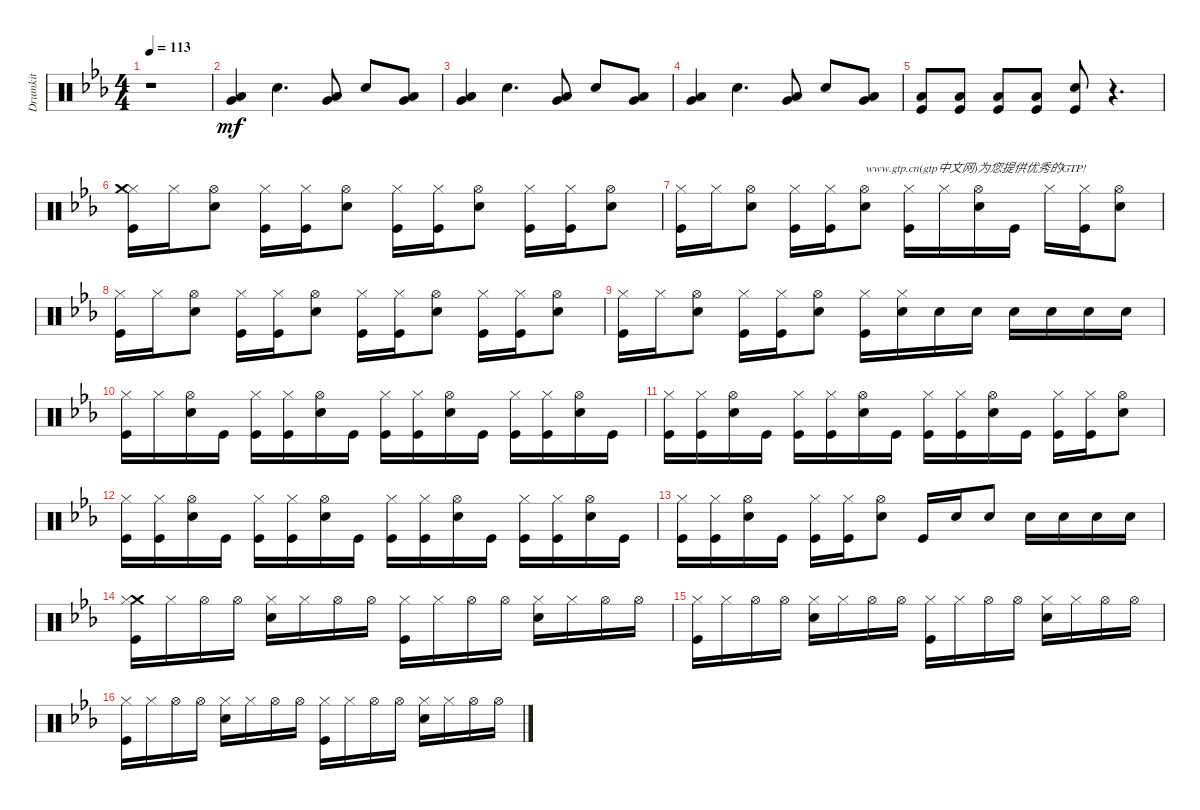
\track ("Drumkit" "Drumkit") {instrument percussion}
\staff {score}
\articulation defaults
\ts (4 4)
\tempo 113
\clef neutral
\ks eb
r.1{dy mf} |
("Low Floor Tom (hit)" "Very Low Tom (hit)").4 "Snare (hit) 2".4{d} ("Low Floor Tom (hit)" "Very Low Tom (hit)").8 "Snare (hit) 2".8 ("Low Floor Tom (hit)" "Very Low Tom (hit)").8 |
("Very Low Tom (hit)" "Low Floor Tom (hit)").4 "Snare (hit) 2".4{d} ("Very Low Tom (hit)" "Low Floor Tom (hit)").8 "Snare (hit) 2".8 ("Very Low Tom (hit)" "Low Floor Tom (hit)").8 |
("Very Low Tom (hit)" "Low Floor Tom (hit)").4 "Snare (hit) 2".4{d} ("Very Low Tom (hit)" "Low Floor Tom (hit)").8 "Snare (hit) 2".8 ("Very Low Tom (hit)" "Low Floor Tom (hit)").8 |
("Kick (hit)" "Low Floor Tom (hit)").8 ("Kick (hit)" "Low Floor Tom (hit)").8 ("Kick (hit)" "Low Floor Tom (hit)").8 ("Kick (hit)" "Low Floor Tom (hit)").8 ("Snare (hit) 2" "Kick (hit)").8 r.4{d} |
("Hi-Hat (closed)" "Kick (hit)" "Crash medium (hit)").16 "Hi-Hat (closed)".16 ("Hi-Hat (open)" "Snare (hit) 2").8 ("Hi-Hat (closed)" "Kick (hit)").16 ("Hi-Hat (closed)" "Kick (hit)").16 ("Hi-Hat (open)" "Snare (hit) 2").8 ("Hi-Hat (closed)" "Kick (hit)").16 ("Hi-Hat (closed)" "Kick (hit)").16 ("Hi-Hat (open)" "Snare (hit) 2").8 ("Hi-Hat (closed)" "Kick (hit)").16 ("Hi-Hat (closed)" "Kick (hit)").16 ("Hi-Hat (open)" "Snare (hit) 2").8 |
("Hi-Hat (closed)" "Kick (hit)").16 "Hi-Hat (closed)".16 ("Hi-Hat (open)" "Snare (hit) 2").8 ("Hi-Hat (closed)" "Kick (hit)").16 ("Hi-Hat (closed)" "Kick (hit)").16 ("Hi-Hat (open)" "Snare (hit) 2").8{txt "www.gtp.cn(gtp中文网)为您提供优秀的GTP!"} ("Hi-Hat (closed)" "Kick (hit)").16 "Hi-Hat (closed)".16 ("Hi-Hat (open)" "Snare (hit) 2").16 "Kick (hit)".16 "Hi-Hat (closed)".16 ("Hi-Hat (closed)" "Kick (hit)").16 ("Snare (hit) 2" "Hi-Hat (open)").8 |
("Hi-Hat (closed)" "Kick (hit)").16 "Hi-Hat (closed)".16 ("Hi-Hat (open)" "Snare (hit) 2").8 ("Hi-Hat (closed)" "Kick (hit)").16 ("Hi-Hat (closed)" "Kick (hit)").16 ("Hi-Hat (open)" "Snare (hit) 2").8 ("Hi-Hat (closed)" "Kick (hit)").16 ("Hi-Hat (closed)" "Kick (hit)").16 ("Hi-Hat (open)" "Snare (hit) 2").8 ("Hi-Hat (closed)" "Kick (hit)").16 ("Hi-Hat (closed)" "Kick (hit)").16 ("Hi-Hat (open)" "Snare (hit) 2").8 |
("Hi-Hat (closed)" "Kick (hit)").16 "Hi-Hat (closed)".16 ("Hi-Hat (open)" "Snare (hit) 2").8 ("Hi-Hat (closed)" "Kick (hit)").16 ("Hi-Hat (closed)" "Kick (hit)").16 ("Hi-Hat (open)" "Snare (hit) 2").8 ("Hi-Hat (closed)" "Kick (hit)").16 ("Hi-Hat (closed)" "Snare (hit) 2").16 "Snare (hit) 2".16 "Snare (hit) 2".16 "Snare (hit) 2".16 "Snare (hit) 2".16 "Snare (hit) 2".16 "Snare (hit) 2".16 |
("Hi-Hat (closed)" "Kick (hit)").16 "Hi-Hat (closed)".16 ("Hi-Hat (open)" "Snare (hit) 2").16 "Kick (hit)".16 ("Kick (hit)" "Hi-Hat (closed)").16 ("Kick (hit)" "Hi-Hat (closed)").16 ("Snare (hit) 2" "Hi-Hat (open)").16 "Kick (hit)".16 ("Kick (hit)" "Hi-Hat (closed)").16 ("Kick (hit)" "Hi-Hat (closed)").16 ("Snare (hit) 2" "Hi-Hat (open)").16 "Kick (hit)".16 ("Kick (hit)" "Hi-Hat (closed)").16 ("Kick (hit)" "Hi-Hat (closed)").16 ("Snare (hit) 2" "Hi-Hat (open)").16 "Kick (hit)".16 |
("Kick (hit)" "Hi-Hat (closed)").16 ("Kick (hit)" "Hi-Hat (closed)").16 ("Snare (hit) 2" "Hi-Hat (open)").16 "Kick (hit)".16 ("Kick (hit)" "Hi-Hat (closed)").16 ("Kick (hit)" "Hi-Hat (closed)").16 ("Snare (hit) 2" "Hi-Hat (open)").16 "Kick (hit)".16 ("Kick (hit)" "Hi-Hat (closed)").16 ("Kick (hit)" "Hi-Hat (closed)").16 ("Snare (hit) 2" "Hi-Hat (open)").16 "Kick (hit)".16 ("Kick (hit)" "Hi-Hat (closed)").16 ("Kick (hit)" "Hi-Hat (closed)").16 ("Snare (hit) 2" "Hi-Hat (open)").8 |
("Kick (hit)" "Hi-Hat (closed)").16 ("Kick (hit)" "Hi-Hat (closed)").16 ("Snare (hit) 2" "Hi-Hat (open)").16 "Kick (hit)".16 ("Hi-Hat (closed)" "Kick (hit)").16 ("Hi-Hat (closed)" "Kick (hit)").16 ("Hi-Hat (open)" "Snare (hit) 2").16 "Kick (hit)".16 ("Kick (hit)" "Hi-Hat (closed)").16 ("Hi-Hat (closed)" "Kick (hit)").16 ("Hi-Hat (open)" "Snare (hit) 2").16 "Kick (hit)".16 ("Hi-Hat (closed)" "Kick (hit)").16 ("Kick (hit)" "Hi-Hat (closed)").16 ("Snare (hit) 2" "Hi-Hat (open)").16 "Kick (hit)".16 |
("Kick (hit)" "Hi-Hat (closed)").16 ("Kick (hit)" "Hi-Hat (closed)").16 ("Snare (hit) 2" "Hi-Hat (open)").16 "Kick (hit)".16 ("Kick (hit)" "Hi-Hat (closed)").16 ("Kick (hit)" "Hi-Hat (closed)").16 ("Snare (hit) 2" "Hi-Hat (open)").8 "Kick (hit)".16 "Snare (hit) 2".16 "Snare (hit) 2".8 "Snare (hit) 2".16 "Snare (hit) 2".16 "Snare (hit) 2".16 "Snare (hit) 2".16 |
("Crash medium (hit)" "Hi-Hat (closed)" "Kick (hit)").16 "Hi-Hat (closed)".16 "Hi-Hat (open)".16 "Hi-Hat (open)".16 ("Hi-Hat (closed)" "Snare (hit) 2").16 "Hi-Hat (closed)".16 "Hi-Hat (open)".16 "Hi-Hat (open)".16 ("Hi-Hat (closed)" "Kick (hit)").16 "Hi-Hat (closed)".16 "Hi-Hat (open)".16 "Hi-Hat (open)".16 ("Hi-Hat (closed)" "Snare (hit) 2").16 "Hi-Hat (closed)".16 "Hi-Hat (open)".16 "Hi-Hat (open)".16 |
("Hi-Hat (closed)" "Kick (hit)").16 "Hi-Hat (closed)".16 "Hi-Hat (open)".16 "Hi-Hat (open)".16 ("Hi-Hat (closed)" "Snare (hit) 2").16 "Hi-Hat (closed)".16 "Hi-Hat (open)".16 "Hi-Hat (open)".16 ("Hi-Hat (closed)" "Kick (hit)").16 "Hi-Hat (closed)".16 "Hi-Hat (open)".16 "Hi-Hat (open)".16 ("Hi-Hat (closed)" "Snare (hit) 2").16 "Hi-Hat (closed)".16 "Hi-Hat (open)".16 "Hi-Hat (open)".16 |
("Hi-Hat (closed)" "Kick (hit)").16 "Hi-Hat (closed)".16 "Hi-Hat (open)".16 "Hi-Hat (open)".16 ("Hi-Hat (closed)" "Snare (hit) 2").16 "Hi-Hat (closed)".16 "Hi-Hat (open)".16 "Hi-Hat (open)".16 ("Hi-Hat (closed)" "Kick (hit)").16 "Hi-Hat (closed)".16 "Hi-Hat (open)".16 "Hi-Hat (open)".16 ("Hi-Hat (closed)" "Snare (hit) 2").16 "Hi-Hat (closed)".16 "Hi-Hat (open)".16 "Hi-Hat (open)".16
